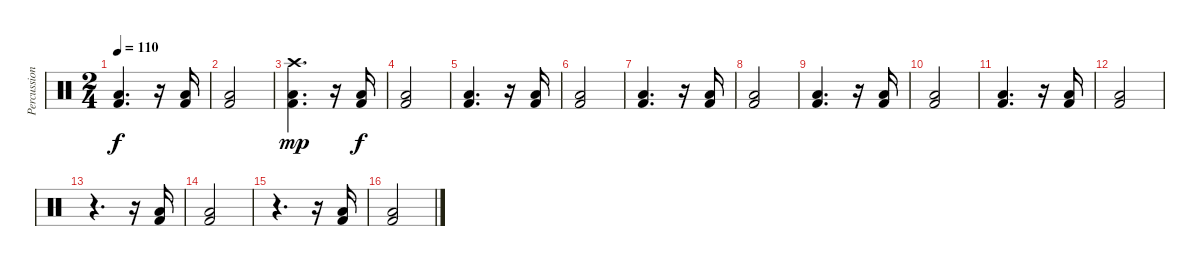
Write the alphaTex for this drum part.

\track ("Percussioni" "Percussion") {instrument percussion}
\staff {score}
\articulation defaults
\ts (2 4)
\tempo 110
\clef neutral
\ks c
("Low Floor Tom (hit)" "Kick (hit) 2").4{d dy f} r.16 ("Low Floor Tom (hit)" "Kick (hit) 2").16 |
("Low Floor Tom (hit)" "Kick (hit) 2").2 |
("Crash high (hit)" "Low Floor Tom (hit)" "Kick (hit) 2").4{d dy mp} r.16 ("Low Floor Tom (hit)" "Kick (hit) 2").16{dy f} |
("Low Floor Tom (hit)" "Kick (hit) 2").2 |
("Low Floor Tom (hit)" "Kick (hit) 2").4{d} r.16 ("Low Floor Tom (hit)" "Kick (hit) 2").16 |
("Low Floor Tom (hit)" "Kick (hit) 2").2 |
("Low Floor Tom (hit)" "Kick (hit) 2").4{d} r.16 ("Low Floor Tom (hit)" "Kick (hit) 2").16 |
("Low Floor Tom (hit)" "Kick (hit) 2").2 |
("Low Floor Tom (hit)" "Kick (hit) 2").4{d} r.16 ("Low Floor Tom (hit)" "Kick (hit) 2").16 |
("Low Floor Tom (hit)" "Kick (hit) 2").2 |
("Low Floor Tom (hit)" "Kick (hit) 2").4{d} r.16 ("Low Floor Tom (hit)" "Kick (hit) 2").16 |
("Low Floor Tom (hit)" "Kick (hit) 2").2 |
r.4{d} r.16 ("Low Floor Tom (hit)" "Kick (hit) 2").16 |
("Low Floor Tom (hit)" "Kick (hit) 2").2 |
r.4{d} r.16 ("Low Floor Tom (hit)" "Kick (hit) 2").16 |
("Low Floor Tom (hit)" "Kick (hit) 2").2
